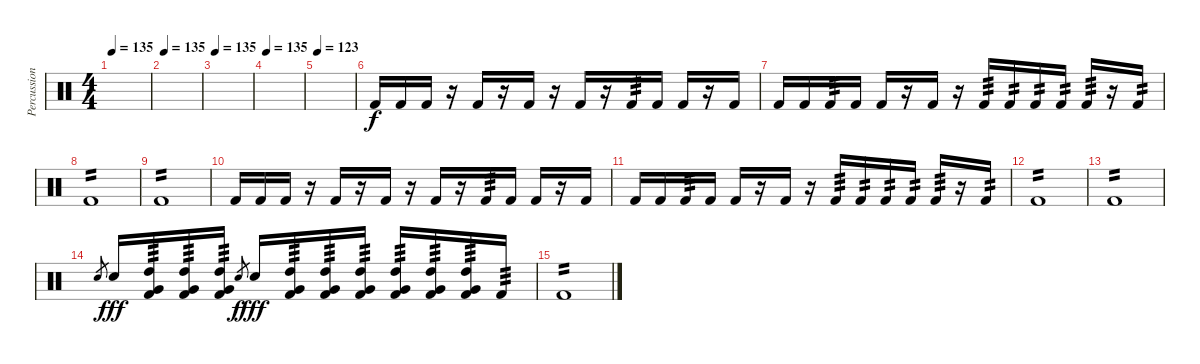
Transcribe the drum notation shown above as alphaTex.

\track ("Percussion" "Percussion") {solo instrument percussion}
\staff {score}
\articulation defaults
\ts (4 4)
\tempo 135
\clef neutral
\ks c
|
\tempo 135
|
\tempo 135
|
\tempo 135
|
\tempo 123
|
"Kick (hit) 2".16 "Kick (hit) 2".16 "Kick (hit) 2".16 r.16 "Kick (hit) 2".16 r.16 "Kick (hit) 2".16 r.16 "Kick (hit) 2".16 r.16 "Kick (hit) 2".16{tp 3} "Kick (hit) 2".16 "Kick (hit) 2".16 r.16 "Kick (hit) 2".16 |
"Kick (hit) 2".16 "Kick (hit) 2".16 "Kick (hit) 2".16{tp 3} "Kick (hit) 2".16 "Kick (hit) 2".16 r.16 "Kick (hit) 2".16 r.16 "Kick (hit) 2".16{tp 3} "Kick (hit) 2".16{tp 2} "Kick (hit) 2".16{tp 2} "Kick (hit) 2".16{tp 2} "Kick (hit) 2".16{tp 3} r.16 "Kick (hit) 2".16{tp 2} |
"Kick (hit) 2".1{tp 2} |
"Kick (hit) 2".1{tp 2} |
"Kick (hit) 2".16 "Kick (hit) 2".16 "Kick (hit) 2".16 r.16 "Kick (hit) 2".16 r.16 "Kick (hit) 2".16 r.16 "Kick (hit) 2".16 r.16 "Kick (hit) 2".16{tp 3} "Kick (hit) 2".16 "Kick (hit) 2".16 r.16 "Kick (hit) 2".16 |
"Kick (hit) 2".16 "Kick (hit) 2".16 "Kick (hit) 2".16{tp 3} "Kick (hit) 2".16 "Kick (hit) 2".16 r.16 "Kick (hit) 2".16 r.16 "Kick (hit) 2".16{tp 3} "Kick (hit) 2".16{tp 2} "Kick (hit) 2".16{tp 2} "Kick (hit) 2".16{tp 2} "Kick (hit) 2".16{tp 3} r.16 "Kick (hit) 2".16{tp 2} |
"Kick (hit) 2".1{tp 2} |
"Kick (hit) 2".1{tp 2} |
"Electric Snare (hit)".8{gr dy f} "Electric Snare (hit)".16{dy fff} ("High Tom (hit)" "Very Low Tom (hit)" "Kick (hit) 2").16{tp 3} ("High Tom (hit)" "Very Low Tom (hit)" "Kick (hit) 2").16{tp 3} ("High Tom (hit)" "Very Low Tom (hit)" "Kick (hit) 2").16{tp 3} "Electric Snare (hit)".8{gr dy f} "Electric Snare (hit)".16{dy fff} ("High Tom (hit)" "Very Low Tom (hit)" "Kick (hit) 2").16{tp 3} ("High Tom (hit)" "Very Low Tom (hit)" "Kick (hit) 2").16{tp 3} ("High Tom (hit)" "Very Low Tom (hit)" "Kick (hit) 2").16{tp 3} ("High Tom (hit)" "Very Low Tom (hit)" "Kick (hit) 2").16{tp 3} ("High Tom (hit)" "Very Low Tom (hit)" "Kick (hit) 2").16{tp 3} ("High Tom (hit)" "Very Low Tom (hit)" "Kick (hit) 2").16{tp 3} "Kick (hit) 2".16{tp 3} |
"Kick (hit) 2".1{tp 2}
